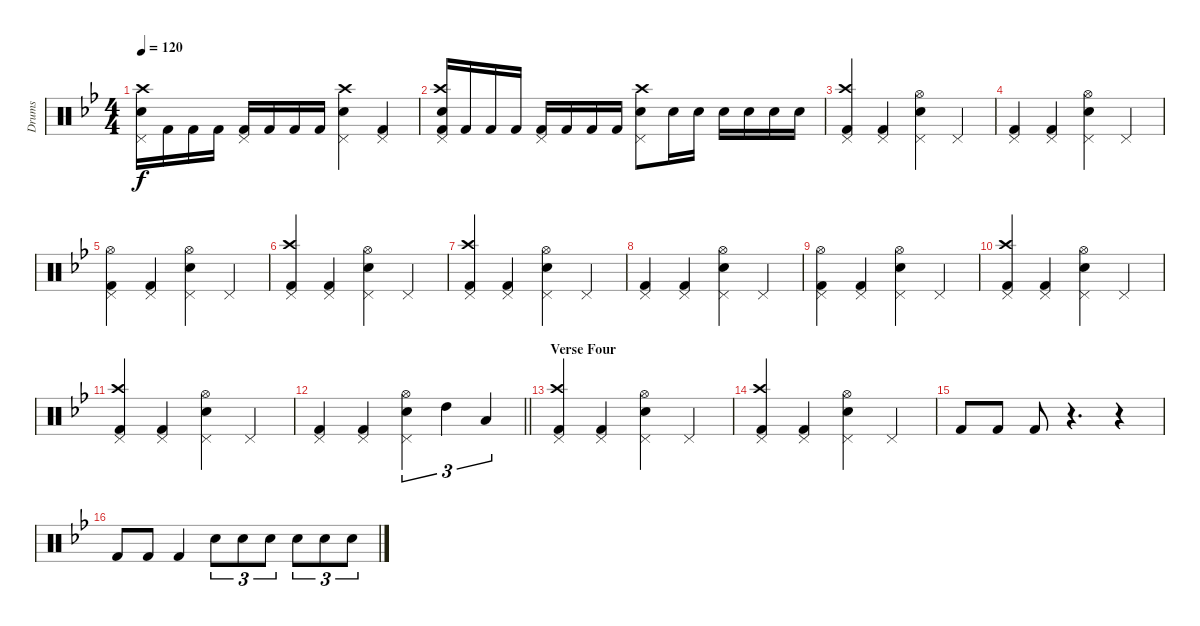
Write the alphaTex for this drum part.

\track ("Drums" "Drums") {instrument percussion}
\staff {score}
\articulation defaults
\ts (4 4)
\tempo 120
\clef neutral
\ks bb
("Pedal Hi-Hat (hit)" "Snare (hit) 2" "Crash high (hit)").16{dy f} "Kick (hit) 2".16 "Kick (hit) 2".16 "Kick (hit) 2".16 ("Pedal Hi-Hat (hit)" "Kick (hit) 2").16 "Kick (hit) 2".16 "Kick (hit) 2".16 "Kick (hit) 2".16 ("Pedal Hi-Hat (hit)" "Snare (hit) 2" "Crash high (hit)").4 ("Pedal Hi-Hat (hit)" "Kick (hit) 2").4 |
("Pedal Hi-Hat (hit)" "Snare (hit) 2" "Crash high (hit)" "Kick (hit) 2").16 "Kick (hit) 2".16 "Kick (hit) 2".16 "Kick (hit) 2".16 ("Pedal Hi-Hat (hit)" "Kick (hit) 2").16 "Kick (hit) 2".16 "Kick (hit) 2".16 "Kick (hit) 2".16 ("Pedal Hi-Hat (hit)" "Snare (hit) 2" "Crash high (hit)").8 "Snare (hit) 2".16 "Snare (hit) 2".16 "Snare (hit) 2".16 "Snare (hit) 2".16 "Snare (hit) 2".16 "Snare (hit) 2".16 |
("Pedal Hi-Hat (hit)" "Crash high (hit)" "Kick (hit) 2").4 ("Pedal Hi-Hat (hit)" "Kick (hit) 2").4 ("Pedal Hi-Hat (hit)" "Snare (hit) 2" "Hi-Hat (open)").4 "Pedal Hi-Hat (hit)".4 |
("Pedal Hi-Hat (hit)" "Kick (hit) 2").4 ("Pedal Hi-Hat (hit)" "Kick (hit) 2").4 ("Pedal Hi-Hat (hit)" "Snare (hit) 2" "Hi-Hat (open)").4 "Pedal Hi-Hat (hit)".4 |
("Pedal Hi-Hat (hit)" "Hi-Hat (open)" "Kick (hit) 2").4 ("Pedal Hi-Hat (hit)" "Kick (hit) 2").4 ("Pedal Hi-Hat (hit)" "Snare (hit) 2" "Hi-Hat (open)").4 "Pedal Hi-Hat (hit)".4 |
("Pedal Hi-Hat (hit)" "Crash high (hit)" "Kick (hit) 2").4 ("Pedal Hi-Hat (hit)" "Kick (hit) 2").4 ("Pedal Hi-Hat (hit)" "Snare (hit) 2" "Hi-Hat (open)").4 "Pedal Hi-Hat (hit)".4 |
("Pedal Hi-Hat (hit)" "Crash high (hit)" "Kick (hit) 2").4 ("Pedal Hi-Hat (hit)" "Kick (hit) 2").4 ("Pedal Hi-Hat (hit)" "Snare (hit) 2" "Hi-Hat (open)").4 "Pedal Hi-Hat (hit)".4 |
("Pedal Hi-Hat (hit)" "Kick (hit) 2").4 ("Pedal Hi-Hat (hit)" "Kick (hit) 2").4 ("Pedal Hi-Hat (hit)" "Snare (hit) 2" "Hi-Hat (open)").4 "Pedal Hi-Hat (hit)".4 |
("Pedal Hi-Hat (hit)" "Hi-Hat (open)" "Kick (hit) 2").4 ("Pedal Hi-Hat (hit)" "Kick (hit) 2").4 ("Pedal Hi-Hat (hit)" "Snare (hit) 2" "Hi-Hat (open)").4 "Pedal Hi-Hat (hit)".4 |
("Pedal Hi-Hat (hit)" "Crash high (hit)" "Kick (hit) 2").4 ("Pedal Hi-Hat (hit)" "Kick (hit) 2").4 ("Pedal Hi-Hat (hit)" "Snare (hit) 2" "Hi-Hat (open)").4 "Pedal Hi-Hat (hit)".4 |
("Pedal Hi-Hat (hit)" "Crash high (hit)" "Kick (hit) 2").4 ("Pedal Hi-Hat (hit)" "Kick (hit) 2").4 ("Pedal Hi-Hat (hit)" "Snare (hit) 2" "Hi-Hat (open)").4 "Pedal Hi-Hat (hit)".4 |
\barLineRight lightlight
("Pedal Hi-Hat (hit)" "Kick (hit) 2").4 ("Pedal Hi-Hat (hit)" "Kick (hit) 2").4 ("Pedal Hi-Hat (hit)" "Snare (hit) 2" "Hi-Hat (open)").4{tu (3 2)} "High Tom (hit)".4{tu (3 2)} "Low Tom (hit)".4{tu (3 2)} |
\section ("" "Verse Four")
("Pedal Hi-Hat (hit)" "Crash high (hit)" "Kick (hit) 2").4 ("Pedal Hi-Hat (hit)" "Kick (hit) 2").4 ("Pedal Hi-Hat (hit)" "Snare (hit) 2" "Hi-Hat (open)").4 "Pedal Hi-Hat (hit)".4 |
("Pedal Hi-Hat (hit)" "Crash high (hit)" "Kick (hit) 2").4 ("Pedal Hi-Hat (hit)" "Kick (hit) 2").4 ("Pedal Hi-Hat (hit)" "Snare (hit) 2" "Hi-Hat (open)").4 "Pedal Hi-Hat (hit)".4 |
"Kick (hit) 2".8 "Kick (hit) 2".8 "Kick (hit) 2".8 r.4{d} r.4 |
"Kick (hit) 2".8 "Kick (hit) 2".8 "Kick (hit) 2".4 "Snare (hit) 2".8{tu (3 2)} "Snare (hit) 2".8{tu (3 2)} "Snare (hit) 2".8{tu (3 2)} "Snare (hit) 2".8{tu (3 2)} "Snare (hit) 2".8{tu (3 2)} "Snare (hit) 2".8{tu (3 2)}
